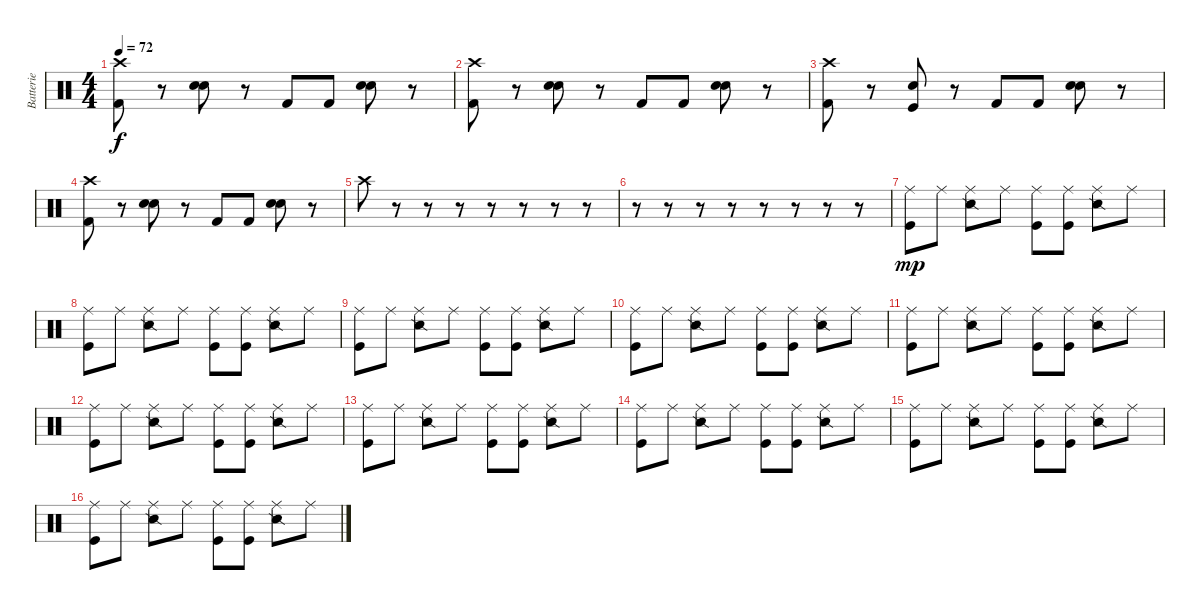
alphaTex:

\track ("Batterie" "Batterie") {instrument percussion}
\staff {score}
\articulation defaults
\ts (4 4)
\tempo 72
\clef neutral
\ks c
("Crash high (hit)" "Kick (hit) 2").8{dy f} r.8 ("Snare (hit) 2" "Snare (hit) 2").8 r.8 "Kick (hit) 2".8 "Kick (hit) 2".8 ("Snare (hit) 2" "Snare (hit) 2").8 r.8 |
("Crash high (hit)" "Kick (hit) 2").8 r.8 ("Snare (hit) 2" "Snare (hit) 2").8 r.8 "Kick (hit) 2".8 "Kick (hit) 2".8 ("Snare (hit) 2" "Snare (hit) 2").8 r.8 |
("Crash high (hit)" "Kick (hit) 2").8 r.8 ("Snare (hit) 2" "Kick (hit)").8 r.8 "Kick (hit) 2".8 "Kick (hit) 2".8 ("Snare (hit) 2" "Snare (hit) 2").8 r.8 |
("Crash high (hit)" "Kick (hit) 2").8 r.8 ("Snare (hit) 2" "Snare (hit) 2").8 r.8 "Kick (hit) 2".8 "Kick (hit) 2".8 ("Snare (hit) 2" "Snare (hit) 2").8 r.8 |
"Crash high (hit)".8 r.8 r.8 r.8 r.8 r.8 r.8 r.8 |
r.8 r.8 r.8 r.8 r.8 r.8 r.8 r.8 |
("Ride (middle)" "Kick (hit)").8{dy mp} "Ride (middle)".8 ("Ride (middle)" "Snare (side stick) 2").8 "Ride (middle)".8 ("Ride (middle)" "Kick (hit)").8 ("Ride (middle)" "Kick (hit)").8 ("Ride (middle)" "Snare (side stick) 2").8 "Ride (middle)".8 |
("Ride (middle)" "Kick (hit)").8 "Ride (middle)".8 ("Ride (middle)" "Snare (side stick) 2").8 "Ride (middle)".8 ("Ride (middle)" "Kick (hit)").8 ("Ride (middle)" "Kick (hit)").8 ("Ride (middle)" "Snare (side stick) 2").8 "Ride (middle)".8 |
("Ride (middle)" "Kick (hit)").8 "Ride (middle)".8 ("Ride (middle)" "Snare (side stick) 2").8 "Ride (middle)".8 ("Ride (middle)" "Kick (hit)").8 ("Ride (middle)" "Kick (hit)").8 ("Ride (middle)" "Snare (side stick) 2").8 "Ride (middle)".8 |
("Ride (middle)" "Kick (hit)").8 "Ride (middle)".8 ("Ride (middle)" "Snare (side stick) 2").8 "Ride (middle)".8 ("Ride (middle)" "Kick (hit)").8 ("Ride (middle)" "Kick (hit)").8 ("Ride (middle)" "Snare (side stick) 2").8 "Ride (middle)".8 |
("Ride (middle)" "Kick (hit)").8 "Ride (middle)".8 ("Ride (middle)" "Snare (side stick) 2").8 "Ride (middle)".8 ("Ride (middle)" "Kick (hit)").8 ("Ride (middle)" "Kick (hit)").8 ("Ride (middle)" "Snare (side stick) 2").8 "Ride (middle)".8 |
("Ride (middle)" "Kick (hit)").8 "Ride (middle)".8 ("Ride (middle)" "Snare (side stick) 2").8 "Ride (middle)".8 ("Ride (middle)" "Kick (hit)").8 ("Ride (middle)" "Kick (hit)").8 ("Ride (middle)" "Snare (side stick) 2").8 "Ride (middle)".8 |
("Ride (middle)" "Kick (hit)").8 "Ride (middle)".8 ("Ride (middle)" "Snare (side stick) 2").8 "Ride (middle)".8 ("Ride (middle)" "Kick (hit)").8 ("Ride (middle)" "Kick (hit)").8 ("Ride (middle)" "Snare (side stick) 2").8 "Ride (middle)".8 |
("Ride (middle)" "Kick (hit)").8 "Ride (middle)".8 ("Ride (middle)" "Snare (side stick) 2").8 "Ride (middle)".8 ("Ride (middle)" "Kick (hit)").8 ("Ride (middle)" "Kick (hit)").8 ("Ride (middle)" "Snare (side stick) 2").8 "Ride (middle)".8 |
("Ride (middle)" "Kick (hit)").8 "Ride (middle)".8 ("Ride (middle)" "Snare (side stick) 2").8 "Ride (middle)".8 ("Ride (middle)" "Kick (hit)").8 ("Ride (middle)" "Kick (hit)").8 ("Ride (middle)" "Snare (side stick) 2").8 "Ride (middle)".8 |
("Ride (middle)" "Kick (hit)").8 "Ride (middle)".8 ("Ride (middle)" "Snare (side stick) 2").8 "Ride (middle)".8 ("Ride (middle)" "Kick (hit)").8 ("Ride (middle)" "Kick (hit)").8 ("Ride (middle)" "Snare (side stick) 2").8 "Ride (middle)".8
